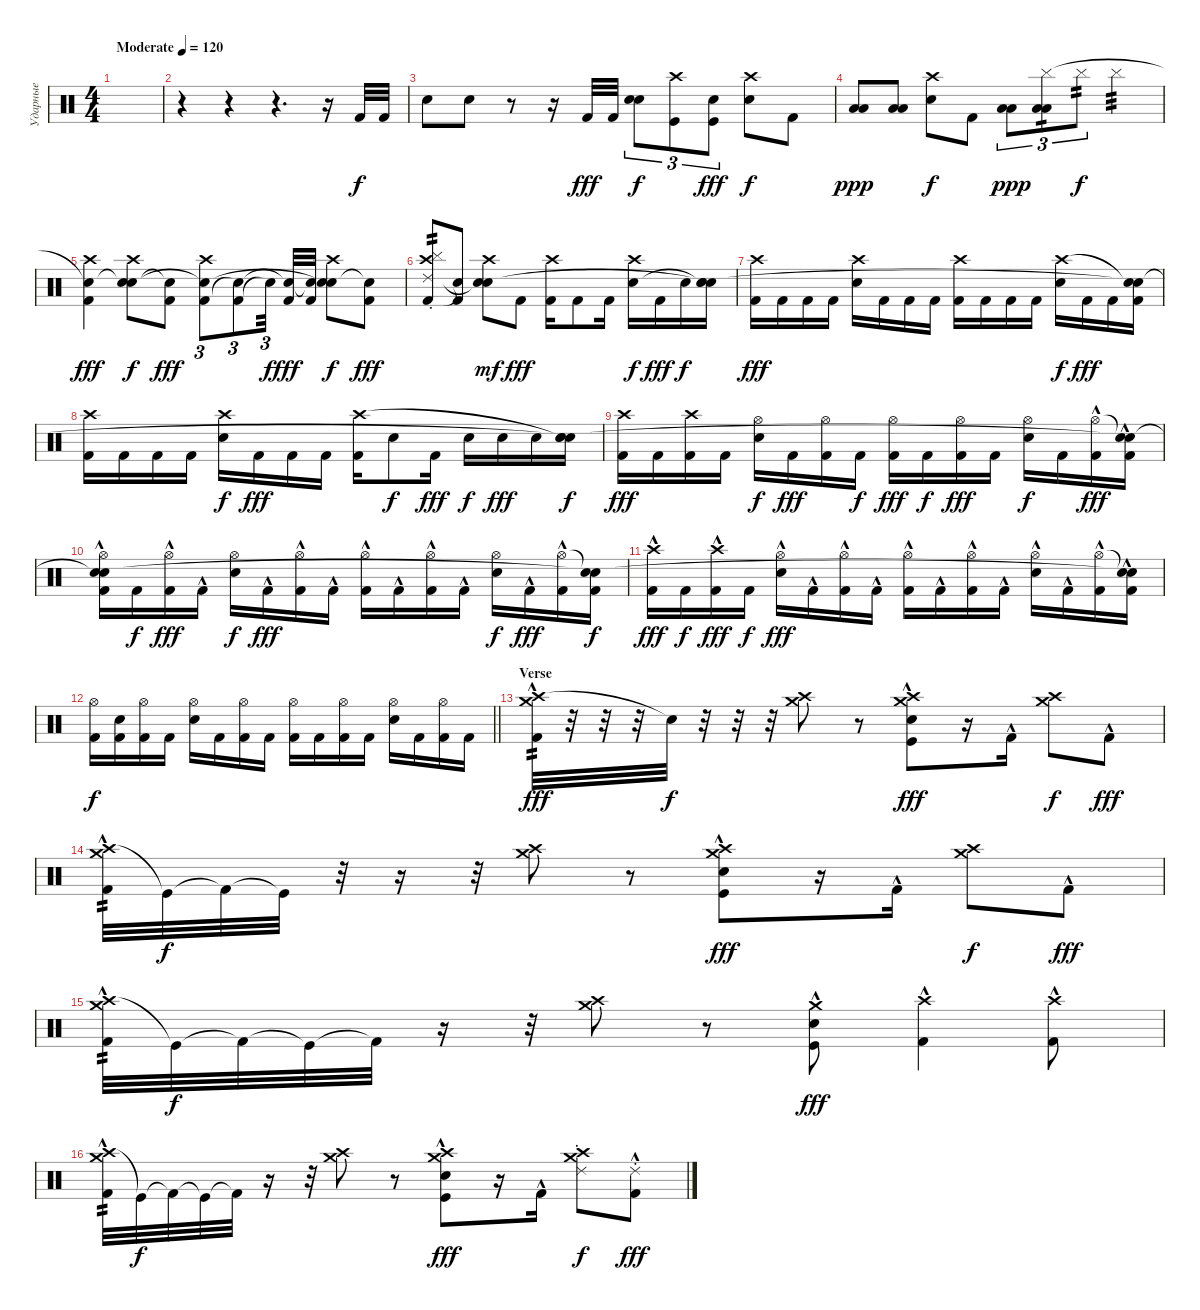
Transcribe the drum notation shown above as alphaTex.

\track ("Ударные" "Ударные") {instrument percussion}
\staff {score}
\articulation defaults
\ts (4 4)
\tempo (120 "Moderate")
\clef neutral
\ks c
|
r.4 r.4 r.4{d} r.16 "Kick (hit) 2".32 "Kick (hit) 2".32 |
"Electric Snare (hit)".8{dy f} "Electric Snare (hit)".8 r.8 r.16 "Kick (hit) 2".32{dy fff} "Kick (hit) 2".32 ("Electric Snare (hit)" "Snare (hit)").8{tu (3 2) dy f} ("Kick (hit)" "Crash high (hit)").8{tu (3 2)} ("Kick (hit)" "Electric Snare (hit)").8{tu (3 2) dy fff} ("Snare (hit) 2" "Crash high (hit)").8{dy f} "Kick (hit) 2".8 |
("Low Floor Tom (hit)" "Low Tom (hit)").8{dy ppp} ("Low Floor Tom (hit)" "Low Tom (hit)").8 ("Snare (hit) 2" "Crash high (hit)").8{dy f} "Kick (hit) 2".8 ("Low Floor Tom (hit)" "Low Tom (hit)").8{tu (3 2) dy ppp} ("Low Floor Tom (hit)" "Low Tom (hit)" "Cymbal (hit)").8{tu (3 2) tp 1} "Cymbal (hit)".8{tu (3 2) tp 2 dy f} "Cymbal (hit)".4{tp 3} |
("Crash high (hit)" "Kick (hit) 2" "Snare (hit)"{t}).4{dy fff} ("Crash high (hit)" "Snare (hit) 2" "Snare (hit)"{t}).8{dy f} ("Kick (hit) 2" "Snare (hit)"{t}).8{dy fff} ("Crash high (hit)" "Kick (hit) 2" "Snare (hit)"{t}).8{tu (3 2)} ("Kick (hit) 2" "Snare (hit)"{t}).8{tu (3 2)} "Snare (hit)"{t}.32{tu (3 2) dy f beam splitsecondary} ("Kick (hit) 2" "Snare (hit)"{t}).32{dy fff} ("Kick (hit) 2" "Snare (hit)"{t}).32 ("Crash high (hit)" "Snare (hit) 2" "Snare (hit)"{t}).8{dy f} ("Kick (hit) 2" "Snare (hit)"{t}).8{dy fff} |
("Crash high (hit)" "Kick (hit) 2" "Ride (choke) 2" "Cymbal (hit)").8{tp 2} ("Kick (hit) 2" "Snare (hit)"{t}).8 ("Crash high (hit)" "Snare (hit) 2" "Snare (hit)"{t}).8{dy mf} "Kick (hit) 2".8{dy fff} ("Crash high (hit)" "Kick (hit) 2").16 "Kick (hit) 2".8 "Kick (hit) 2".16 ("Crash high (hit)" "Snare (hit) 2").16{dy f} "Kick (hit) 2".16{dy fff} "Snare (hit) 2".16{dy f} ("Snare (hit) 2" "Snare (hit)"{t} "Snare (hit)"{t}).16 |
("Kick (hit) 2" "Crash high (hit)").16{dy fff} "Kick (hit) 2".16 "Kick (hit) 2".16 "Kick (hit) 2".16 ("Snare (hit) 2" "Crash high (hit)").16 "Kick (hit) 2".16 "Kick (hit) 2".16 "Kick (hit) 2".16 ("Kick (hit) 2" "Crash high (hit)").16 "Kick (hit) 2".16 "Kick (hit) 2".16 "Kick (hit) 2".16 ("Snare (hit) 2" "Crash high (hit)").16{dy f} "Kick (hit) 2".16{dy fff} "Kick (hit) 2".16 ("Kick (hit) 2" "Snare (hit)"{t} "Snare (hit)"{t}).16 |
("Kick (hit) 2" "Crash high (hit)").16 "Kick (hit) 2".16 "Kick (hit) 2".16 "Kick (hit) 2".16 ("Snare (hit) 2" "Crash high (hit)").16{dy f} "Kick (hit) 2".16{dy fff} "Kick (hit) 2".16 "Kick (hit) 2".16 ("Kick (hit) 2" "Crash high (hit)").16 "Snare (hit) 2".8{dy f} "Kick (hit) 2".16{dy fff} "Snare (hit) 2".16{dy f} "Snare (hit) 2".16{dy fff} "Snare (hit) 2".16 ("Snare (hit) 2" "Snare (hit)"{t} "Snare (hit)"{t}).16{dy f} |
("Kick (hit) 2" "Crash high (hit)").16{dy fff} "Kick (hit) 2".16 ("Kick (hit) 2" "Crash high (hit)").16 "Kick (hit) 2".16 ("Snare (hit) 2" "Hi-Hat (open)").16{dy f} "Kick (hit) 2".16{dy fff} ("Kick (hit) 2" "Hi-Hat (open)").16 "Kick (hit) 2".16{dy f} ("Kick (hit) 2" "Hi-Hat (open)").16{dy fff} "Kick (hit) 2".16{dy f} ("Kick (hit) 2" "Hi-Hat (open)").16{dy fff} "Kick (hit) 2".16 ("Snare (hit) 2" "Hi-Hat (open)").16{dy f} "Kick (hit) 2".16 ("Kick (hit) 2"{hac} "Hi-Hat (open)").16{dy fff} ("Kick (hit) 2"{hac} "Snare (hit)"{t} "Snare (hit)"{t}).16 |
("Kick (hit) 2"{hac} "Hi-Hat (open)" "Snare (hit)"{t} "Snare (hit)").16 "Kick (hit) 2".16{dy f} ("Kick (hit) 2"{hac} "Hi-Hat (open)").16{dy fff} "Kick (hit) 2"{hac}.16 ("Snare (hit) 2" "Hi-Hat (open)").16{dy f} "Kick (hit) 2"{hac}.16{dy fff} ("Kick (hit) 2"{hac} "Hi-Hat (open)").16 "Kick (hit) 2"{hac}.16 ("Kick (hit) 2"{hac} "Hi-Hat (open)").16 "Kick (hit) 2"{hac}.16 ("Kick (hit) 2"{hac} "Hi-Hat (open)").16 "Kick (hit) 2"{hac}.16 ("Snare (hit) 2" "Hi-Hat (open)").16{dy f} "Kick (hit) 2"{hac}.16{dy fff} ("Kick (hit) 2"{hac} "Hi-Hat (open)").16 ("Kick (hit) 2" "Snare (hit)"{t} "Snare (hit)"{t}).16{dy f} |
("Kick (hit) 2"{hac} "Crash high (hit)").16{dy fff} "Kick (hit) 2".16{dy f} ("Kick (hit) 2"{hac} "Crash high (hit)").16{dy fff} "Kick (hit) 2".16{dy f} ("Snare (hit) 2"{hac} "Hi-Hat (open)").16{dy fff} "Kick (hit) 2"{hac}.16 ("Kick (hit) 2"{hac} "Hi-Hat (open)").16 "Kick (hit) 2"{hac}.16 ("Kick (hit) 2"{hac} "Hi-Hat (open)").16 "Kick (hit) 2"{hac}.16 ("Kick (hit) 2"{hac} "Hi-Hat (open)").16 "Kick (hit) 2"{hac}.16 ("Snare (hit) 2"{hac} "Hi-Hat (open)").16 "Kick (hit) 2"{hac}.16 ("Kick (hit) 2"{hac} "Hi-Hat (open)").16 ("Kick (hit) 2"{hac} "Snare (hit)"{t} "Snare (hit)"{t}).16 |
\barLineRight lightlight
("Kick (hit) 2" "Hi-Hat (open)").16{dy f} ("Kick (hit) 2" "Snare (hit)").16 ("Kick (hit) 2" "Hi-Hat (open)").16 "Kick (hit) 2".16 ("Snare (hit) 2" "Hi-Hat (open)").16 "Kick (hit) 2".16 ("Kick (hit) 2" "Hi-Hat (open)").16 "Kick (hit) 2".16 ("Kick (hit) 2" "Hi-Hat (open)").16 "Kick (hit) 2".16 ("Kick (hit) 2" "Hi-Hat (open)").16 "Kick (hit) 2".16 ("Snare (hit) 2" "Hi-Hat (open)").16 "Kick (hit) 2".16 ("Kick (hit) 2" "Hi-Hat (open)").16 "Kick (hit) 2".16 |
\section ("" "Verse")
("Crash high (hit)"{hac} "Crash medium (hit)" "Kick (hit) 2"{hac}).32{tp 2 dy fff} r.32 r.32 r.32 "Snare (hit)"{t}.32{dy f} r.32 r.32 r.32 ("Crash high (hit)" "Crash medium (hit)").8 r.8 ("Crash high (hit)" "Crash medium (hit)" "Electric Snare (hit)" "Kick (hit)"{hac}).8{dy fff} r.16 "Kick (hit) 2"{hac}.16 ("Crash high (hit)" "Crash medium (hit)").8{dy f} "Kick (hit) 2"{hac}.8{dy fff} |
("Crash high (hit)"{hac} "Crash medium (hit)" "Kick (hit) 2"{hac}).32{tp 2} "Kick (hit)"{t}.32{dy f} "Kick (hit) 2"{t}.32 "Kick (hit)"{t}.32 r.32 r.16 r.32 ("Crash high (hit)" "Crash medium (hit)").8 r.8 ("Crash medium (hit)" "Crash high (hit)" "Electric Snare (hit)" "Kick (hit)"{hac}).8{dy fff} r.16 "Kick (hit) 2"{hac}.16 ("Crash medium (hit)" "Crash high (hit)").8{dy f} "Kick (hit) 2"{hac}.8{dy fff} |
("Crash high (hit)"{hac} "Crash medium (hit)" "Kick (hit) 2"{hac}).32{tp 2} "Kick (hit)"{t}.32{dy f} "Kick (hit) 2"{t}.32 "Kick (hit)"{t}.32 "Kick (hit) 2"{t}.32 r.16 r.32 ("Crash medium (hit)" "Crash high (hit)").8 r.8 ("Crash medium (hit)" "Electric Snare (hit)" "Kick (hit)"{hac}).8{dy fff} ("Crash high (hit)" "Kick (hit) 2"{hac}).4 ("Crash high (hit)" "Kick (hit) 2"{hac}).8 |
("Crash high (hit)"{hac} "Crash medium (hit)" "Kick (hit) 2"{hac}).32{tp 2} "Kick (hit)"{t}.32{dy f} "Kick (hit) 2"{t}.32 "Kick (hit)"{t}.32 "Kick (hit) 2"{t}.32 r.16 r.32 ("Crash high (hit)" "Crash medium (hit)").8 r.8 ("Crash high (hit)" "Crash medium (hit)" "Electric Snare (hit)" "Kick (hit)"{hac}).8{dy fff} r.16 "Kick (hit) 2"{hac}.16 ("Crash high (hit)" "Crash medium (hit)" "Ride (choke) 2").8{dy f} ("Ride (choke) 2" "Kick (hit) 2"{hac}).8{dy fff}
